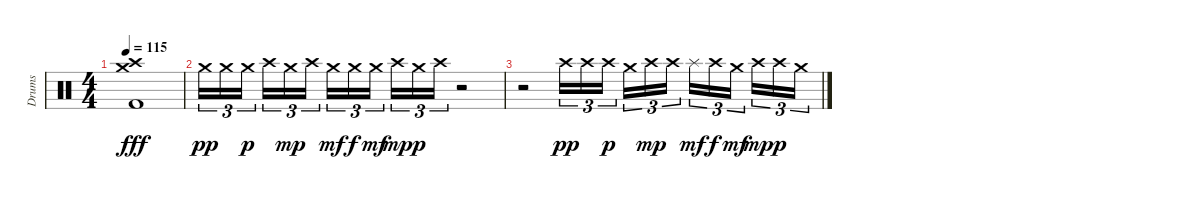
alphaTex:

\track ("Drums" "Drums") {instrument percussion}
\staff {score}
\articulation defaults
\ts (4 4)
\tempo 115
\clef neutral
\ks c
("Crash high (hit)" "Crash medium (hit)" "Kick (hit) 2").1{dy fff} |
"Crash medium (hit)".16{tu (3 2) dy pp} "Crash medium (hit)".16{tu (3 2)} "Crash medium (hit)".16{tu (3 2) dy p beam splitsecondary} "Crash high (hit)".16{tu (3 2)} "Crash medium (hit)".16{tu (3 2) dy mp} "Crash high (hit)".16{tu (3 2)} "Crash medium (hit)".16{tu (3 2) dy mf} "Crash medium (hit)".16{tu (3 2) dy f} "Crash medium (hit)".16{tu (3 2) dy mf beam splitsecondary} "Crash high (hit)".16{tu (3 2) dy mp} "Crash medium (hit)".16{tu (3 2) dy p} "Crash high (hit)".16{tu (3 2)} r.2 |
r.2 "Crash high (hit)".16{tu (3 2) dy pp} "Crash high (hit)".16{tu (3 2)} "Crash high (hit)".16{tu (3 2) dy p beam splitsecondary} "Crash medium (hit)".16{tu (3 2)} "Crash high (hit)".16{tu (3 2) dy mp} "Crash high (hit)".16{tu (3 2)} "Splash (hit)".16{tu (3 2) dy mf} "Crash high (hit)".16{tu (3 2) dy f} "Crash medium (hit)".16{tu (3 2) dy mf beam splitsecondary} "Crash high (hit)".16{tu (3 2) dy mp} "Crash high (hit)".16{tu (3 2) dy p} "Crash medium (hit)".16{tu (3 2)}
